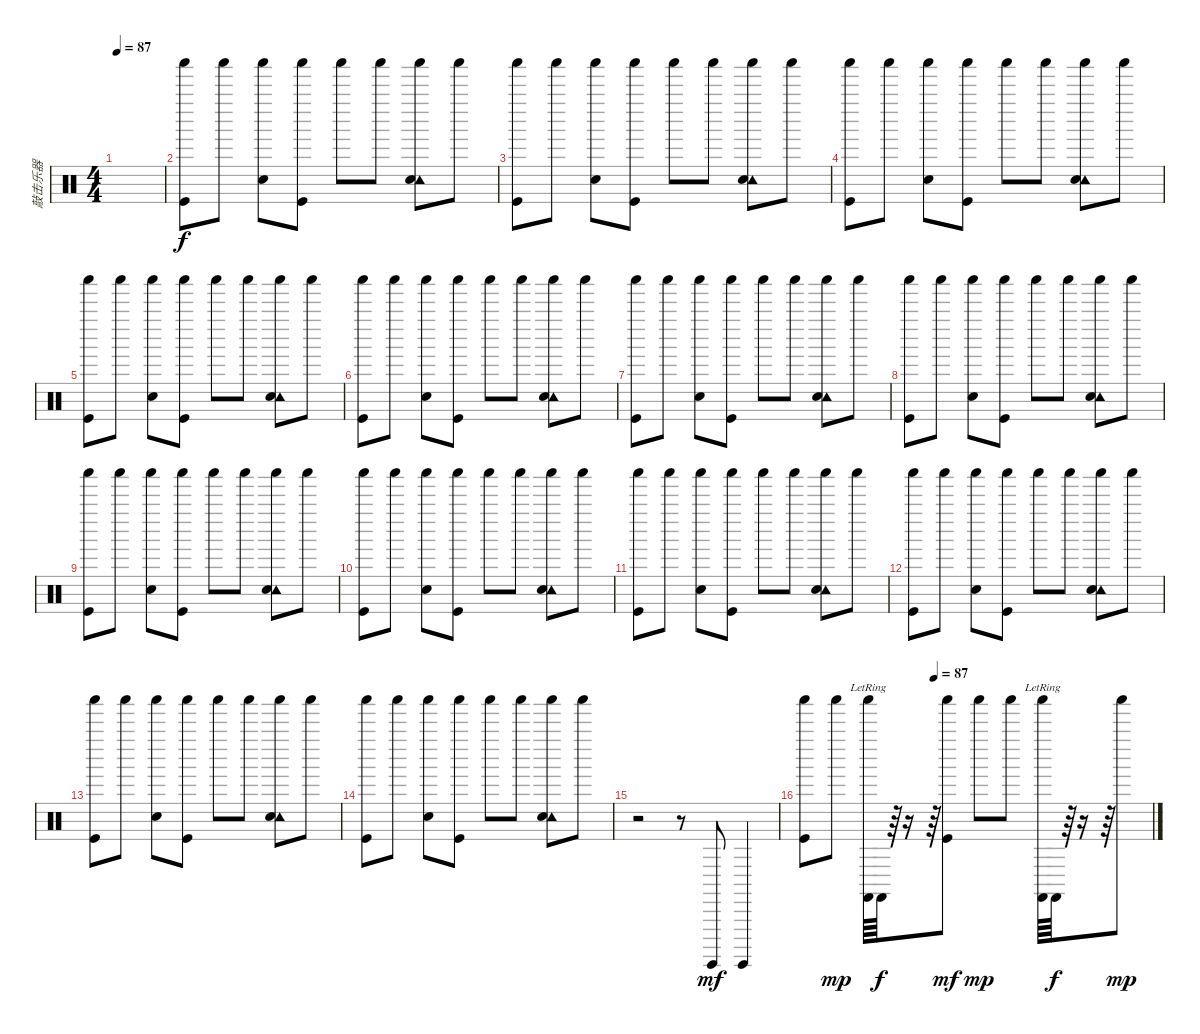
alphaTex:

\track ("敲击乐器" "敲击乐器") {instrument percussion}
\staff {score}
\articulation defaults
\ts (4 4)
\tempo 87
\clef neutral
\ks c
|
("Shaker (hit)" "Kick (hit)").8 "Shaker (hit)".8 ("Shaker (hit)" "Hand Clap (hit)").8 ("Shaker (hit)" "Kick (hit)").8 "Shaker (hit)".8 "Shaker (hit)".8 ("Shaker (hit)" "Tambourine (hit)" "Hand Clap (hit)").8 "Shaker (hit)".8 |
("Shaker (hit)" "Kick (hit)").8 "Shaker (hit)".8 ("Shaker (hit)" "Hand Clap (hit)").8 ("Shaker (hit)" "Kick (hit)").8 "Shaker (hit)".8 "Shaker (hit)".8 ("Shaker (hit)" "Tambourine (hit)" "Hand Clap (hit)").8 "Shaker (hit)".8 |
("Shaker (hit)" "Kick (hit)").8 "Shaker (hit)".8 ("Shaker (hit)" "Hand Clap (hit)").8 ("Shaker (hit)" "Kick (hit)").8 "Shaker (hit)".8 "Shaker (hit)".8 ("Shaker (hit)" "Tambourine (hit)" "Hand Clap (hit)").8 "Shaker (hit)".8 |
("Shaker (hit)" "Kick (hit)").8 "Shaker (hit)".8 ("Shaker (hit)" "Hand Clap (hit)").8 ("Shaker (hit)" "Kick (hit)").8 "Shaker (hit)".8 "Shaker (hit)".8 ("Shaker (hit)" "Tambourine (hit)" "Hand Clap (hit)").8 "Shaker (hit)".8 |
("Shaker (hit)" "Kick (hit)").8 "Shaker (hit)".8 ("Shaker (hit)" "Hand Clap (hit)").8 ("Shaker (hit)" "Kick (hit)").8 "Shaker (hit)".8 "Shaker (hit)".8 ("Shaker (hit)" "Tambourine (hit)" "Hand Clap (hit)").8 "Shaker (hit)".8 |
("Shaker (hit)" "Kick (hit)").8 "Shaker (hit)".8 ("Shaker (hit)" "Hand Clap (hit)").8 ("Shaker (hit)" "Kick (hit)").8 "Shaker (hit)".8 "Shaker (hit)".8 ("Shaker (hit)" "Tambourine (hit)" "Hand Clap (hit)").8 "Shaker (hit)".8 |
("Shaker (hit)" "Kick (hit)").8 "Shaker (hit)".8 ("Shaker (hit)" "Hand Clap (hit)").8 ("Shaker (hit)" "Kick (hit)").8 "Shaker (hit)".8 "Shaker (hit)".8 ("Shaker (hit)" "Tambourine (hit)" "Hand Clap (hit)").8 "Shaker (hit)".8 |
("Shaker (hit)" "Kick (hit)").8 "Shaker (hit)".8 ("Shaker (hit)" "Hand Clap (hit)").8 ("Shaker (hit)" "Kick (hit)").8 "Shaker (hit)".8 "Shaker (hit)".8 ("Shaker (hit)" "Tambourine (hit)" "Hand Clap (hit)").8 "Shaker (hit)".8 |
("Shaker (hit)" "Kick (hit)").8 "Shaker (hit)".8 ("Shaker (hit)" "Hand Clap (hit)").8 ("Shaker (hit)" "Kick (hit)").8 "Shaker (hit)".8 "Shaker (hit)".8 ("Shaker (hit)" "Tambourine (hit)" "Hand Clap (hit)").8 "Shaker (hit)".8 |
("Shaker (hit)" "Kick (hit)").8 "Shaker (hit)".8 ("Shaker (hit)" "Hand Clap (hit)").8 ("Shaker (hit)" "Kick (hit)").8 "Shaker (hit)".8 "Shaker (hit)".8 ("Shaker (hit)" "Tambourine (hit)" "Hand Clap (hit)").8 "Shaker (hit)".8 |
("Shaker (hit)" "Kick (hit)").8 "Shaker (hit)".8 ("Shaker (hit)" "Hand Clap (hit)").8 ("Shaker (hit)" "Kick (hit)").8 "Shaker (hit)".8 "Shaker (hit)".8 ("Shaker (hit)" "Tambourine (hit)" "Hand Clap (hit)").8 "Shaker (hit)".8 |
("Shaker (hit)" "Kick (hit)").8 "Shaker (hit)".8 ("Shaker (hit)" "Hand Clap (hit)").8 ("Shaker (hit)" "Kick (hit)").8 "Shaker (hit)".8 "Shaker (hit)".8 ("Shaker (hit)" "Tambourine (hit)" "Hand Clap (hit)").8 "Shaker (hit)".8 |
("Shaker (hit)" "Kick (hit)").8 "Shaker (hit)".8 ("Shaker (hit)" "Hand Clap (hit)").8 ("Shaker (hit)" "Kick (hit)").8 "Shaker (hit)".8 "Shaker (hit)".8 ("Shaker (hit)" "Tambourine (hit)" "Hand Clap (hit)").8 "Shaker (hit)".8 |
r.2 r.8 "Surdo (hit)".8{dy mf} "Surdo (hit)".4 |
\tempo (87 0.375)
("Shaker (hit)" "Kick (hit)").8 "Shaker (hit)".8{dy mp} ("Shaker (hit)"{lr} "Castanets (hit)").64 "Castanets (hit)".64{dy f} r.64 r.16 r.64 ("Shaker (hit)" "Kick (hit)").8{dy mf} "Shaker (hit)".8{dy mp} "Shaker (hit)".8 ("Shaker (hit)"{lr} "Castanets (hit)").64 "Castanets (hit)".64{dy f} r.64 r.16 r.64 "Shaker (hit)".8{dy mp}
